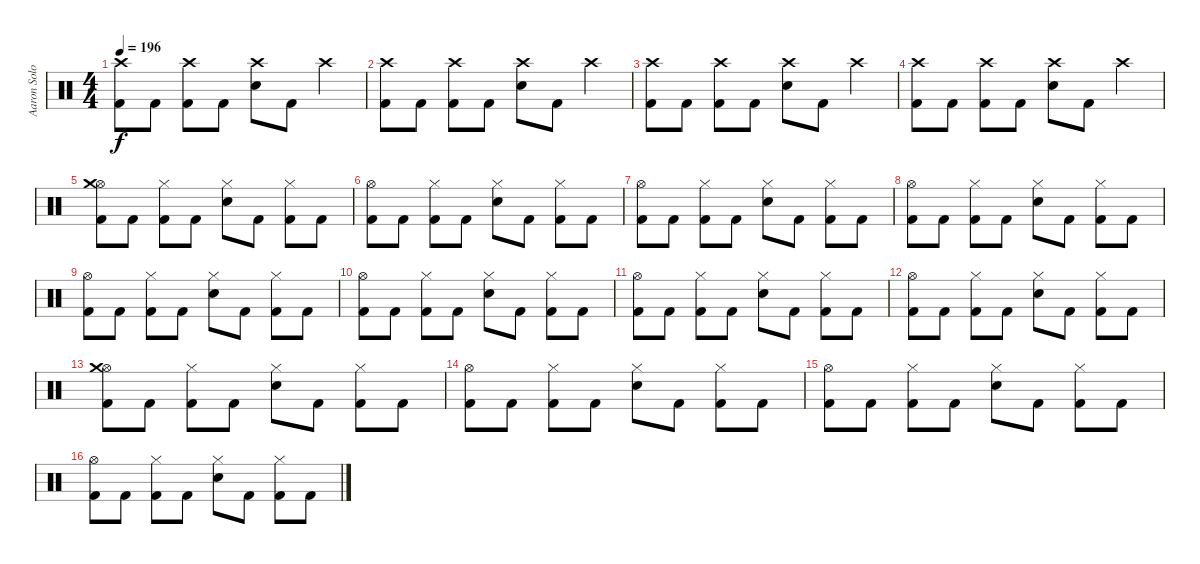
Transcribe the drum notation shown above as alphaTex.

\track ("Aaron Solowoniuk" "Aaron Solo") {instrument percussion}
\staff {score}
\articulation defaults
\ts (4 4)
\tempo 196
\clef neutral
\ks c
("Crash high (hit)" "Kick (hit) 2").8{dy f} "Kick (hit) 2".8 ("Crash high (hit)" "Kick (hit) 2").8 "Kick (hit) 2".8 ("Crash high (hit)" "Electric Snare (hit)").8 "Kick (hit) 2".8 "Crash high (hit)".4 |
("Crash high (hit)" "Kick (hit) 2").8 "Kick (hit) 2".8 ("Crash high (hit)" "Kick (hit) 2").8 "Kick (hit) 2".8 ("Crash high (hit)" "Electric Snare (hit)").8 "Kick (hit) 2".8 "Crash high (hit)".4 |
("Crash high (hit)" "Kick (hit) 2").8 "Kick (hit) 2".8 ("Crash high (hit)" "Kick (hit) 2").8 "Kick (hit) 2".8 ("Crash high (hit)" "Electric Snare (hit)").8 "Kick (hit) 2".8 "Crash high (hit)".4 |
("Crash high (hit)" "Kick (hit) 2").8 "Kick (hit) 2".8 ("Crash high (hit)" "Kick (hit) 2").8 "Kick (hit) 2".8 ("Crash high (hit)" "Electric Snare (hit)").8 "Kick (hit) 2".8 "Crash high (hit)".4 |
("Hi-Hat (open)" "Kick (hit) 2" "Crash medium (hit)").8 "Kick (hit) 2".8 ("Hi-Hat (closed)" "Kick (hit) 2").8 "Kick (hit) 2".8 ("Hi-Hat (closed)" "Electric Snare (hit)").8 "Kick (hit) 2".8 ("Hi-Hat (closed)" "Kick (hit) 2").8 "Kick (hit) 2".8 |
("Hi-Hat (open)" "Kick (hit) 2").8 "Kick (hit) 2".8 ("Hi-Hat (closed)" "Kick (hit) 2").8 "Kick (hit) 2".8 ("Hi-Hat (closed)" "Electric Snare (hit)").8 "Kick (hit) 2".8 ("Hi-Hat (closed)" "Kick (hit) 2").8 "Kick (hit) 2".8 |
("Hi-Hat (open)" "Kick (hit) 2").8 "Kick (hit) 2".8 ("Hi-Hat (closed)" "Kick (hit) 2").8 "Kick (hit) 2".8 ("Hi-Hat (closed)" "Electric Snare (hit)").8 "Kick (hit) 2".8 ("Hi-Hat (closed)" "Kick (hit) 2").8 "Kick (hit) 2".8 |
("Hi-Hat (open)" "Kick (hit) 2").8 "Kick (hit) 2".8 ("Hi-Hat (closed)" "Kick (hit) 2").8 "Kick (hit) 2".8 ("Hi-Hat (closed)" "Electric Snare (hit)").8 "Kick (hit) 2".8 ("Hi-Hat (closed)" "Kick (hit) 2").8 "Kick (hit) 2".8 |
("Hi-Hat (open)" "Kick (hit) 2").8 "Kick (hit) 2".8 ("Hi-Hat (closed)" "Kick (hit) 2").8 "Kick (hit) 2".8 ("Hi-Hat (closed)" "Electric Snare (hit)").8 "Kick (hit) 2".8 ("Hi-Hat (closed)" "Kick (hit) 2").8 "Kick (hit) 2".8 |
("Hi-Hat (open)" "Kick (hit) 2").8 "Kick (hit) 2".8 ("Hi-Hat (closed)" "Kick (hit) 2").8 "Kick (hit) 2".8 ("Hi-Hat (closed)" "Electric Snare (hit)").8 "Kick (hit) 2".8 ("Hi-Hat (closed)" "Kick (hit) 2").8 "Kick (hit) 2".8 |
("Hi-Hat (open)" "Kick (hit) 2").8 "Kick (hit) 2".8 ("Hi-Hat (closed)" "Kick (hit) 2").8 "Kick (hit) 2".8 ("Hi-Hat (closed)" "Electric Snare (hit)").8 "Kick (hit) 2".8 ("Hi-Hat (closed)" "Kick (hit) 2").8 "Kick (hit) 2".8 |
("Hi-Hat (open)" "Kick (hit) 2").8 "Kick (hit) 2".8 ("Hi-Hat (closed)" "Kick (hit) 2").8 "Kick (hit) 2".8 ("Hi-Hat (closed)" "Electric Snare (hit)").8 "Kick (hit) 2".8 ("Hi-Hat (closed)" "Kick (hit) 2").8 "Kick (hit) 2".8 |
("Hi-Hat (open)" "Kick (hit) 2" "Crash medium (hit)").8 "Kick (hit) 2".8 ("Hi-Hat (closed)" "Kick (hit) 2").8 "Kick (hit) 2".8 ("Hi-Hat (closed)" "Electric Snare (hit)").8 "Kick (hit) 2".8 ("Hi-Hat (closed)" "Kick (hit) 2").8 "Kick (hit) 2".8 |
("Hi-Hat (open)" "Kick (hit) 2").8 "Kick (hit) 2".8 ("Hi-Hat (closed)" "Kick (hit) 2").8 "Kick (hit) 2".8 ("Hi-Hat (closed)" "Electric Snare (hit)").8 "Kick (hit) 2".8 ("Hi-Hat (closed)" "Kick (hit) 2").8 "Kick (hit) 2".8 |
("Hi-Hat (open)" "Kick (hit) 2").8 "Kick (hit) 2".8 ("Hi-Hat (closed)" "Kick (hit) 2").8 "Kick (hit) 2".8 ("Hi-Hat (closed)" "Electric Snare (hit)").8 "Kick (hit) 2".8 ("Hi-Hat (closed)" "Kick (hit) 2").8 "Kick (hit) 2".8 |
("Hi-Hat (open)" "Kick (hit) 2").8 "Kick (hit) 2".8 ("Hi-Hat (closed)" "Kick (hit) 2").8 "Kick (hit) 2".8 ("Hi-Hat (closed)" "Electric Snare (hit)").8 "Kick (hit) 2".8 ("Hi-Hat (closed)" "Kick (hit) 2").8 "Kick (hit) 2".8
